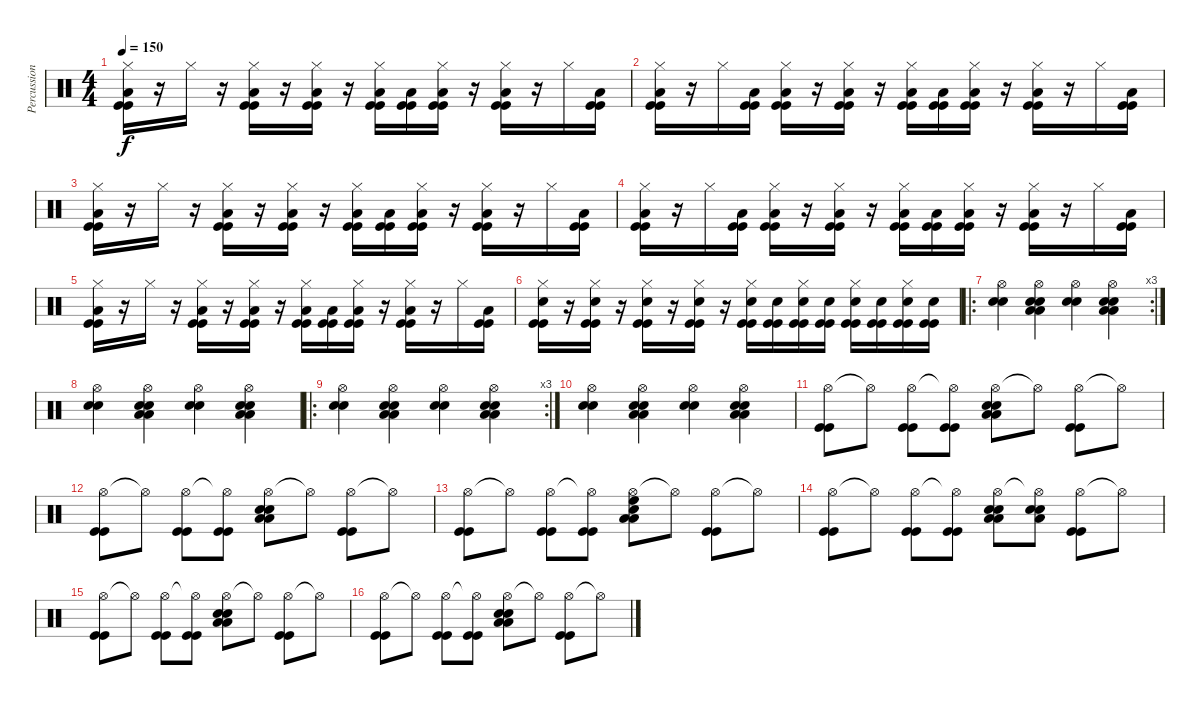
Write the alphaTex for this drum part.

\track ("Percussion" "Percussion") {instrument percussion}
\staff {score}
\articulation defaults
\ts (4 4)
\tempo 150
\clef neutral
\ks c
("Hi-Hat (closed)" "Kick (hit)" "Kick (hit)" "Low Tom (hit)").16{dy f} r.16 "Hi-Hat (closed)".16 r.16 ("Hi-Hat (closed)" "Kick (hit)" "Kick (hit)" "Low Tom (hit)").16 r.16 ("Hi-Hat (closed)" "Kick (hit)" "Kick (hit)" "Low Tom (hit)").16 r.16 ("Hi-Hat (closed)" "Kick (hit)" "Kick (hit)" "Low Tom (hit)").16 ("Kick (hit)" "Kick (hit)" "Low Tom (hit)").16 ("Hi-Hat (closed)" "Kick (hit)" "Kick (hit)" "Low Tom (hit)").16 r.16 ("Hi-Hat (closed)" "Kick (hit)" "Kick (hit)" "Low Tom (hit)").16 r.16 "Hi-Hat (closed)".16 ("Kick (hit)" "Kick (hit)" "Low Tom (hit)").16 |
("Hi-Hat (closed)" "Kick (hit)" "Kick (hit)" "Low Tom (hit)").16 r.16 "Hi-Hat (closed)".16 ("Kick (hit)" "Kick (hit)" "Low Tom (hit)").16 ("Hi-Hat (closed)" "Kick (hit)" "Kick (hit)" "Low Tom (hit)").16 r.16 ("Hi-Hat (closed)" "Kick (hit)" "Kick (hit)" "Low Tom (hit)").16 r.16 ("Hi-Hat (closed)" "Kick (hit)" "Kick (hit)" "Low Tom (hit)").16 ("Kick (hit)" "Kick (hit)" "Low Tom (hit)").16 ("Hi-Hat (closed)" "Kick (hit)" "Kick (hit)" "Low Tom (hit)").16 r.16 ("Hi-Hat (closed)" "Kick (hit)" "Kick (hit)" "Low Tom (hit)").16 r.16 "Hi-Hat (closed)".16 ("Kick (hit)" "Kick (hit)" "Low Tom (hit)").16 |
("Hi-Hat (closed)" "Kick (hit)" "Kick (hit)" "Low Tom (hit)").16 r.16 "Hi-Hat (closed)".16 r.16 ("Hi-Hat (closed)" "Kick (hit)" "Kick (hit)" "Low Tom (hit)").16 r.16 ("Hi-Hat (closed)" "Kick (hit)" "Kick (hit)" "Low Tom (hit)").16 r.16 ("Hi-Hat (closed)" "Kick (hit)" "Kick (hit)" "Low Tom (hit)").16 ("Kick (hit)" "Kick (hit)" "Low Tom (hit)").16 ("Hi-Hat (closed)" "Kick (hit)" "Kick (hit)" "Low Tom (hit)").16 r.16 ("Hi-Hat (closed)" "Kick (hit)" "Kick (hit)" "Low Tom (hit)").16 r.16 "Hi-Hat (closed)".16 ("Kick (hit)" "Kick (hit)" "Low Tom (hit)").16 |
("Hi-Hat (closed)" "Kick (hit)" "Kick (hit)" "Low Tom (hit)").16 r.16 "Hi-Hat (closed)".16 ("Kick (hit)" "Kick (hit)" "Low Tom (hit)").16 ("Hi-Hat (closed)" "Kick (hit)" "Kick (hit)" "Low Tom (hit)").16 r.16 ("Hi-Hat (closed)" "Kick (hit)" "Kick (hit)" "Low Tom (hit)").16 r.16 ("Hi-Hat (closed)" "Kick (hit)" "Kick (hit)" "Low Tom (hit)").16 ("Kick (hit)" "Kick (hit)" "Low Tom (hit)").16 ("Hi-Hat (closed)" "Kick (hit)" "Kick (hit)" "Low Tom (hit)").16 r.16 ("Hi-Hat (closed)" "Kick (hit)" "Kick (hit)" "Low Tom (hit)").16 r.16 "Hi-Hat (closed)".16 ("Kick (hit)" "Kick (hit)" "Low Tom (hit)").16 |
("Hi-Hat (closed)" "Kick (hit)" "Kick (hit)" "Low Tom (hit)").16 r.16 "Hi-Hat (closed)".16 r.16 ("Hi-Hat (closed)" "Kick (hit)" "Kick (hit)" "Low Tom (hit)").16 r.16 ("Hi-Hat (closed)" "Kick (hit)" "Kick (hit)" "Low Tom (hit)").16 r.16 ("Hi-Hat (closed)" "Kick (hit)" "Kick (hit)" "Low Tom (hit)").16 ("Kick (hit)" "Kick (hit)" "Low Tom (hit)").16 ("Hi-Hat (closed)" "Kick (hit)" "Kick (hit)" "Low Tom (hit)").16 r.16 ("Hi-Hat (closed)" "Kick (hit)" "Kick (hit)" "Low Tom (hit)").16 r.16 "Hi-Hat (closed)".16 ("Kick (hit)" "Kick (hit)" "Low Tom (hit)").16 |
("Hi-Hat (closed)" "Kick (hit)" "Kick (hit)" "Electric Snare (hit)").16 r.16 ("Hi-Hat (closed)" "Kick (hit)" "Kick (hit)" "Electric Snare (hit)").16 r.16 ("Hi-Hat (closed)" "Kick (hit)" "Kick (hit)" "Electric Snare (hit)").16 r.16 ("Hi-Hat (closed)" "Kick (hit)" "Kick (hit)" "Electric Snare (hit)").16 r.16 ("Hi-Hat (closed)" "Kick (hit)" "Kick (hit)" "Electric Snare (hit)").16 ("Kick (hit)" "Kick (hit)" "Electric Snare (hit)").16 ("Hi-Hat (closed)" "Kick (hit)" "Kick (hit)" "Electric Snare (hit)").16 ("Kick (hit)" "Kick (hit)" "Electric Snare (hit)").16 ("Hi-Hat (closed)" "Kick (hit)" "Kick (hit)" "Electric Snare (hit)").16 ("Kick (hit)" "Kick (hit)" "Electric Snare (hit)").16 ("Hi-Hat (closed)" "Kick (hit)" "Kick (hit)" "Electric Snare (hit)").16 ("Kick (hit)" "Kick (hit)" "Electric Snare (hit)").16 |
\ro
\rc 3
("Hi-Hat (open)" "Electric Snare (hit)" "Electric Snare (hit)").4 ("Hi-Hat (open)" "Electric Snare (hit)" "Electric Snare (hit)" "Low Tom (hit)" "Low Tom (hit)").4 ("Hi-Hat (open)" "Electric Snare (hit)" "Electric Snare (hit)").4 ("Hi-Hat (open)" "Electric Snare (hit)" "Electric Snare (hit)" "Low Tom (hit)" "Low Tom (hit)").4 |
("Hi-Hat (open)" "Electric Snare (hit)" "Electric Snare (hit)").4 ("Hi-Hat (open)" "Electric Snare (hit)" "Electric Snare (hit)" "Low Tom (hit)" "Low Tom (hit)").4 ("Hi-Hat (open)" "Electric Snare (hit)" "Electric Snare (hit)").4 ("Hi-Hat (open)" "Electric Snare (hit)" "Electric Snare (hit)" "Low Tom (hit)" "Low Tom (hit)").4 |
\ro
\rc 3
("Hi-Hat (open)" "Electric Snare (hit)" "Electric Snare (hit)").4 ("Hi-Hat (open)" "Electric Snare (hit)" "Electric Snare (hit)" "Low Tom (hit)" "Low Tom (hit)").4 ("Hi-Hat (open)" "Electric Snare (hit)" "Electric Snare (hit)").4 ("Hi-Hat (open)" "Electric Snare (hit)" "Electric Snare (hit)" "Low Tom (hit)" "Low Tom (hit)").4 |
("Hi-Hat (open)" "Electric Snare (hit)" "Electric Snare (hit)").4 ("Hi-Hat (open)" "Electric Snare (hit)" "Electric Snare (hit)" "Low Tom (hit)" "Low Tom (hit)").4 ("Hi-Hat (open)" "Electric Snare (hit)" "Electric Snare (hit)").4 ("Hi-Hat (open)" "Electric Snare (hit)" "Electric Snare (hit)" "Low Tom (hit)" "Low Tom (hit)").4 |
("Hi-Hat (open)" "Kick (hit)" "Kick (hit)").8 "Hi-Hat (open)"{t}.8 ("Hi-Hat (open)" "Kick (hit)" "Kick (hit)").8 ("Hi-Hat (open)"{t} "Kick (hit)" "Kick (hit)").8 ("Hi-Hat (open)" "Electric Snare (hit)" "Electric Snare (hit)" "Low Tom (hit)" "Low Tom (hit)").8 "Hi-Hat (open)"{t}.8 ("Hi-Hat (open)" "Kick (hit)" "Kick (hit)").8 "Hi-Hat (open)"{t}.8 |
("Hi-Hat (open)" "Kick (hit)" "Kick (hit)").8 "Hi-Hat (open)"{t}.8 ("Hi-Hat (open)" "Kick (hit)" "Kick (hit)").8 ("Hi-Hat (open)"{t} "Kick (hit)" "Kick (hit)").8 ("Hi-Hat (open)" "Electric Snare (hit)" "Electric Snare (hit)" "Low Tom (hit)" "Low Tom (hit)").8 "Hi-Hat (open)"{t}.8 ("Hi-Hat (open)" "Kick (hit)" "Kick (hit)").8 "Hi-Hat (open)"{t}.8 |
("Hi-Hat (open)" "Kick (hit)" "Kick (hit)").8 "Hi-Hat (open)"{t}.8 ("Hi-Hat (open)" "Kick (hit)" "Kick (hit)").8 ("Hi-Hat (open)"{t} "Kick (hit)" "Kick (hit)").8 ("Hi-Hat (open)" "Electric Snare (hit)" "High Floor Tom (hit)" "Low Tom (hit)" "Low Tom (hit)").8 "Hi-Hat (open)"{t}.8 ("Hi-Hat (open)" "Kick (hit)" "Kick (hit)").8 "Hi-Hat (open)"{t}.8 |
("Hi-Hat (open)" "Kick (hit)" "Kick (hit)").8 "Hi-Hat (open)"{t}.8 ("Hi-Hat (open)" "Kick (hit)" "Kick (hit)").8 ("Hi-Hat (open)"{t} "Kick (hit)" "Kick (hit)").8 ("Hi-Hat (open)" "Electric Snare (hit)" "Electric Snare (hit)" "Low Tom (hit)" "Low Tom (hit)").8 ("Hi-Hat (open)"{t} "Electric Snare (hit)" "Electric Snare (hit)" "Low Tom (hit)").8 ("Hi-Hat (open)" "Kick (hit)" "Kick (hit)").8 "Hi-Hat (open)"{t}.8 |
("Hi-Hat (open)" "Kick (hit)" "Kick (hit)").8 "Hi-Hat (open)"{t}.8 ("Hi-Hat (open)" "Kick (hit)" "Kick (hit)").8 ("Hi-Hat (open)"{t} "Kick (hit)" "Kick (hit)").8 ("Hi-Hat (open)" "Electric Snare (hit)" "Electric Snare (hit)" "Low Tom (hit)" "Low Tom (hit)").8 "Hi-Hat (open)"{t}.8 ("Hi-Hat (open)" "Kick (hit)" "Kick (hit)").8 "Hi-Hat (open)"{t}.8 |
("Hi-Hat (open)" "Kick (hit)" "Kick (hit)").8 "Hi-Hat (open)"{t}.8 ("Hi-Hat (open)" "Kick (hit)" "Kick (hit)").8 ("Hi-Hat (open)"{t} "Kick (hit)" "Kick (hit)").8 ("Hi-Hat (open)" "Electric Snare (hit)" "Electric Snare (hit)" "Low Tom (hit)" "Low Tom (hit)").8 "Hi-Hat (open)"{t}.8 ("Hi-Hat (open)" "Kick (hit)" "Kick (hit)").8 "Hi-Hat (open)"{t}.8
